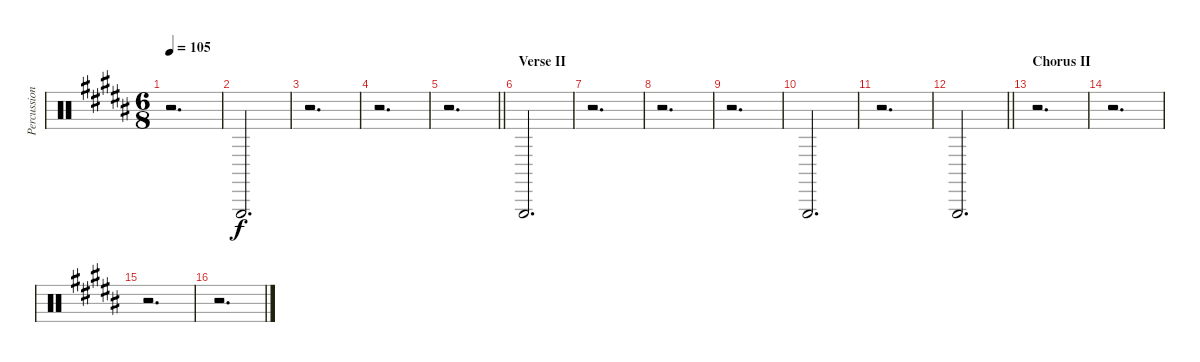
\track ("Percussion" "Percussion") {instrument percussion}
\staff {score}
\articulation defaults
\ts (6 8)
\tempo 105
\clef neutral
\ks b
r.2{d dy f} |
"Triangle (hit)".2{d} |
r.2{d} |
r.2{d} |
\barLineRight lightlight
r.2{d} |
\section ("" "Verse II")
"Triangle (hit)".2{d} |
r.2{d} |
r.2{d} |
r.2{d} |
"Triangle (hit)".2{d} |
r.2{d} |
\barLineRight lightlight "Triangle (hit)".2{d}
|
\section ("" "Chorus II")
r.2{d} |
r.2{d} |
r.2{d} |
r.2{d}
